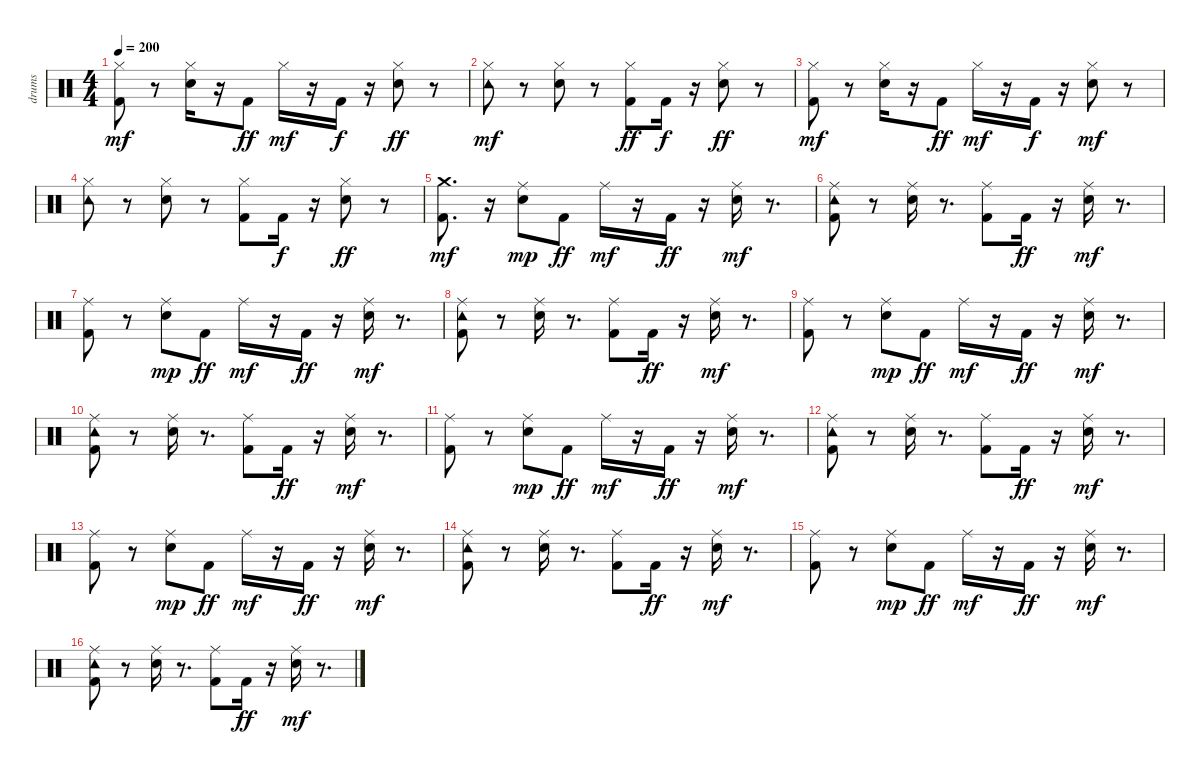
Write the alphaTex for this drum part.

\track ("drums" "drums") {instrument percussion}
\staff {score}
\articulation defaults
\ts (4 4)
\tempo 200
\clef neutral
\ks c
("Kick (hit) 2" "Hi-Hat (closed)").8{dy mf} r.8 ("Snare (hit) 2" "Hi-Hat (closed)").16 r.16 "Kick (hit) 2".8{dy ff} "Hi-Hat (closed)".16{dy mf} r.16 "Kick (hit) 2".16{dy f} r.16 ("Hi-Hat (closed)" "Snare (hit) 2").8{dy ff} r.8 |
("Tambourine (hit)" "Hi-Hat (closed)").8{dy mf} r.8 ("Snare (hit) 2" "Hi-Hat (closed)").8 r.8 ("Hi-Hat (closed)" "Kick (hit) 2").8{dy ff} "Kick (hit) 2".16{dy f} r.16 ("Hi-Hat (closed)" "Snare (hit) 2").8{dy ff} r.8 |
("Kick (hit) 2" "Hi-Hat (closed)").8{dy mf} r.8 ("Hi-Hat (closed)" "Snare (hit) 2").16 r.16 "Kick (hit) 2".8{dy ff} "Hi-Hat (closed)".16{dy mf} r.16 "Kick (hit) 2".16{dy f} r.16 ("Snare (hit) 2" "Hi-Hat (closed)").8{dy mf} r.8 |
("Tambourine (hit)" "Hi-Hat (closed)").8 r.8 ("Snare (hit) 2" "Hi-Hat (closed)").8 r.8 ("Kick (hit) 2" "Hi-Hat (closed)").8 "Kick (hit) 2".16{dy f} r.16 ("Snare (hit) 2" "Hi-Hat (closed)").8{dy ff} r.8 |
("Kick (hit) 2" "Crash medium (hit)").8{d dy mf} r.16 ("Snare (hit) 2" "Ride (middle)").8{dy mp} "Kick (hit) 2".8{dy ff} "Ride (middle)".16{dy mf} r.16 "Kick (hit) 2".16{dy ff} r.16 ("Snare (hit) 2" "Ride (middle)").16{dy mf} r.8{d} |
("Tambourine (hit)" "Kick (hit) 2" "Ride (middle)").8 r.8 ("Snare (hit) 2" "Ride (middle)").16 r.8{d} ("Kick (hit) 2" "Ride (middle)").8 "Kick (hit) 2".16{dy ff} r.16 ("Snare (hit) 2" "Ride (middle)").16{dy mf} r.8{d} |
("Kick (hit) 2" "Ride (middle)").8 r.8 ("Snare (hit) 2" "Ride (middle)").8{dy mp} "Kick (hit) 2".8{dy ff} "Ride (middle)".16{dy mf} r.16 "Kick (hit) 2".16{dy ff} r.16 ("Snare (hit) 2" "Ride (middle)").16{dy mf} r.8{d} |
("Tambourine (hit)" "Kick (hit) 2" "Ride (middle)").8 r.8 ("Snare (hit) 2" "Ride (middle)").16 r.8{d} ("Kick (hit) 2" "Ride (middle)").8 "Kick (hit) 2".16{dy ff} r.16 ("Snare (hit) 2" "Ride (middle)").16{dy mf} r.8{d} |
("Kick (hit) 2" "Ride (middle)").8 r.8 ("Snare (hit) 2" "Ride (middle)").8{dy mp} "Kick (hit) 2".8{dy ff} "Ride (middle)".16{dy mf} r.16 "Kick (hit) 2".16{dy ff} r.16 ("Snare (hit) 2" "Ride (middle)").16{dy mf} r.8{d} |
("Tambourine (hit)" "Kick (hit) 2" "Ride (middle)").8 r.8 ("Snare (hit) 2" "Ride (middle)").16 r.8{d} ("Kick (hit) 2" "Ride (middle)").8 "Kick (hit) 2".16{dy ff} r.16 ("Snare (hit) 2" "Ride (middle)").16{dy mf} r.8{d} |
("Kick (hit) 2" "Ride (middle)").8 r.8 ("Snare (hit) 2" "Ride (middle)").8{dy mp} "Kick (hit) 2".8{dy ff} "Ride (middle)".16{dy mf} r.16 "Kick (hit) 2".16{dy ff} r.16 ("Snare (hit) 2" "Ride (middle)").16{dy mf} r.8{d} |
("Tambourine (hit)" "Kick (hit) 2" "Ride (middle)").8 r.8 ("Snare (hit) 2" "Ride (middle)").16 r.8{d} ("Kick (hit) 2" "Ride (middle)").8 "Kick (hit) 2".16{dy ff} r.16 ("Snare (hit) 2" "Ride (middle)").16{dy mf} r.8{d} |
("Kick (hit) 2" "Ride (middle)").8 r.8 ("Snare (hit) 2" "Ride (middle)").8{dy mp} "Kick (hit) 2".8{dy ff} "Ride (middle)".16{dy mf} r.16 "Kick (hit) 2".16{dy ff} r.16 ("Snare (hit) 2" "Ride (middle)").16{dy mf} r.8{d} |
("Tambourine (hit)" "Kick (hit) 2" "Ride (middle)").8 r.8 ("Snare (hit) 2" "Ride (middle)").16 r.8{d} ("Kick (hit) 2" "Ride (middle)").8 "Kick (hit) 2".16{dy ff} r.16 ("Snare (hit) 2" "Ride (middle)").16{dy mf} r.8{d} |
("Kick (hit) 2" "Ride (middle)").8 r.8 ("Snare (hit) 2" "Ride (middle)").8{dy mp} "Kick (hit) 2".8{dy ff} "Ride (middle)".16{dy mf} r.16 "Kick (hit) 2".16{dy ff} r.16 ("Snare (hit) 2" "Ride (middle)").16{dy mf} r.8{d} |
("Tambourine (hit)" "Kick (hit) 2" "Ride (middle)").8 r.8 ("Snare (hit) 2" "Ride (middle)").16 r.8{d} ("Kick (hit) 2" "Ride (middle)").8 "Kick (hit) 2".16{dy ff} r.16 ("Snare (hit) 2" "Ride (middle)").16{dy mf} r.8{d}
